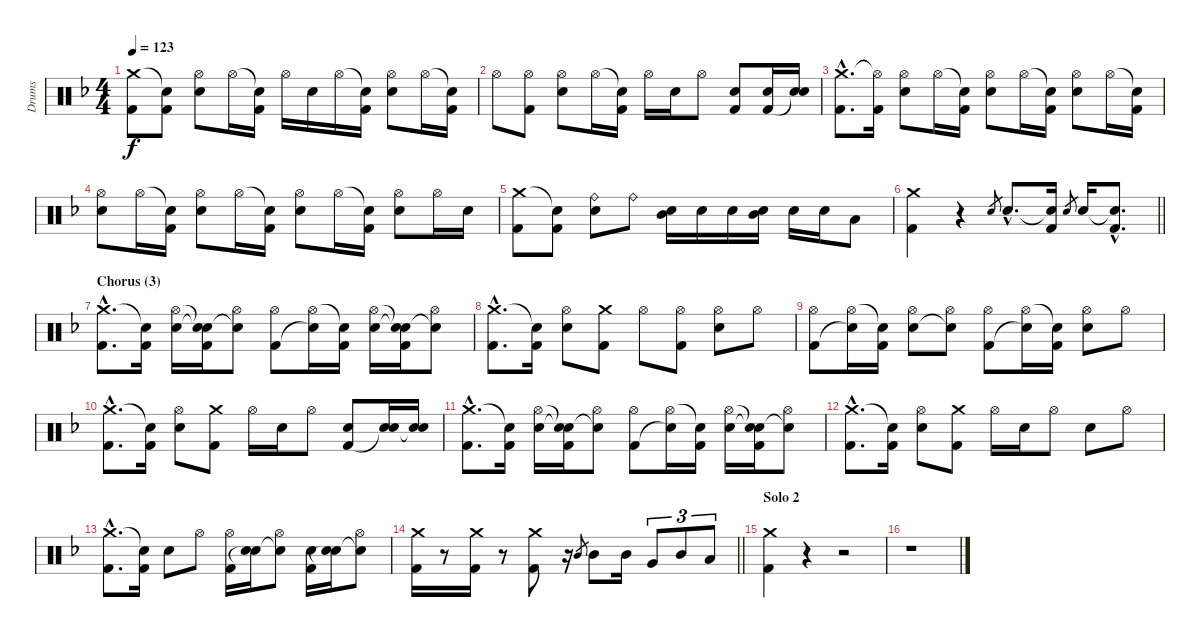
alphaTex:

\track ("Drums" "Drums") {instrument percussion}
\staff {score}
\articulation defaults
\ts (4 4)
\tempo 123
\clef neutral
\ks dminor
("Crash medium (hit)" "Kick (hit) 2").8{dy f} ("Snare (hit)"{t} "Kick (hit) 2").8 ("Hi-Hat (open)" "Electric Snare (hit)").8 "Hi-Hat (open)".16 ("Snare (hit)"{t} "Kick (hit) 2").16 "Hi-Hat (open)".16 "Electric Snare (hit)".16 "Hi-Hat (open)".16 ("Snare (hit)"{t} "Kick (hit) 2").16 ("Hi-Hat (open)" "Electric Snare (hit)").8 "Hi-Hat (open)".16 ("Snare (hit)"{t} "Kick (hit) 2").16 |
"Hi-Hat (open)".8 ("Hi-Hat (open)" "Kick (hit) 2").8 ("Hi-Hat (open)" "Electric Snare (hit)").8 "Hi-Hat (open)".16 ("Snare (hit)"{t} "Kick (hit) 2").16 "Hi-Hat (open)".16 "Electric Snare (hit)".16 "Hi-Hat (open)".8 ("Electric Snare (hit)" "Kick (hit) 2").8 ("Electric Snare (hit)" "Kick (hit) 2").16 ("Electric Snare (hit)" "Snare (hit)"{t}).16 |
("Crash medium (hit)"{hac} "Kick (hit) 2"{hac}).8{d} ("Hi-Hat (open)"{t} "Kick (hit) 2").16 ("Hi-Hat (open)" "Electric Snare (hit)").8 "Hi-Hat (open)".16 ("Snare (hit)"{t} "Kick (hit) 2").16 ("Hi-Hat (open)" "Electric Snare (hit)").8 "Hi-Hat (open)".16 ("Snare (hit)"{t} "Kick (hit) 2").16 ("Hi-Hat (open)" "Electric Snare (hit)").8 "Hi-Hat (open)".16 ("Snare (hit)"{t} "Kick (hit) 2").16 |
("Hi-Hat (open)" "Electric Snare (hit)").8 "Hi-Hat (open)".16 ("Snare (hit)"{t} "Kick (hit) 2").16 ("Hi-Hat (open)" "Electric Snare (hit)").8 "Hi-Hat (open)".16 ("Snare (hit)"{t} "Kick (hit) 2").16 ("Hi-Hat (open)" "Electric Snare (hit)").8 "Hi-Hat (open)".16 ("Snare (hit)"{t} "Kick (hit) 2").16 ("Hi-Hat (open)" "Electric Snare (hit)").8 "Hi-Hat (open)".16 "Electric Snare (hit)".16 |
("Crash medium (hit)" "Kick (hit) 2").8 ("Snare (hit)"{t} "Kick (hit) 2").8 ("Ride (bell)" "Electric Snare (hit)").8 "Ride (bell)".8 ("Electric Snare (hit)" "Mid Tom (hit)").16 "Electric Snare (hit)".16 "Electric Snare (hit)".16 ("Electric Snare (hit)" "Mid Tom (hit)").16 "Electric Snare (hit)".16 "Electric Snare (hit)".16 "Low Floor Tom (hit)".8 |
\barLineRight lightlight
("Crash medium (hit)" "Kick (hit) 2").4 r.4 "Electric Snare (hit)".8{gr} "Electric Snare (hit)"{hac}.8{d} ("Snare (hit)"{t} "Kick (hit) 2").16 "Electric Snare (hit)".8{gr} "Electric Snare (hit)".16 ("Snare (hit)"{hac t} "Kick (hit) 2"{hac}).8{d} |
\section ("" "Chorus (3)")
("Crash medium (hit)"{hac} "Kick (hit) 2"{hac}).8{d} ("Snare (hit)"{t} "Kick (hit) 2").16 ("Hi-Hat (open)" "Electric Snare (hit)").16 ("Snare (hit)"{t} "Snare (hit)"{t} "Kick (hit) 2").16 ("Hi-Hat (open)" "Snare (hit)"{t}).8 ("Hi-Hat (open)" "Kick (hit) 2").8 ("Hi-Hat (open)" "Snare (hit)"{t}).16 ("Snare (hit)"{t} "Kick (hit) 2").16 ("Hi-Hat (open)" "Electric Snare (hit)").16 ("Snare (hit)"{t} "Snare (hit)"{t} "Kick (hit) 2").16 ("Hi-Hat (open)" "Snare (hit)"{t}).8 |
("Crash medium (hit)"{hac} "Kick (hit) 2"{hac}).8{d} ("Snare (hit)"{t} "Kick (hit) 2").16 ("Hi-Hat (open)" "Electric Snare (hit)").8 ("Crash medium (hit)" "Kick (hit) 2").8 "Hi-Hat (open)".8 ("Hi-Hat (open)" "Kick (hit) 2").8 ("Hi-Hat (open)" "Electric Snare (hit)").8 "Hi-Hat (open)".8 |
("Hi-Hat (open)" "Kick (hit) 2").8 ("Hi-Hat (open)" "Snare (hit)"{t}).16 ("Snare (hit)"{t} "Kick (hit) 2").16 ("Hi-Hat (open)" "Electric Snare (hit)").8 ("Hi-Hat (open)" "Snare (hit)"{t}).8 ("Hi-Hat (open)" "Kick (hit) 2").8 ("Hi-Hat (open)" "Snare (hit)"{t}).16 ("Snare (hit)"{t} "Kick (hit) 2").16 ("Hi-Hat (open)" "Electric Snare (hit)").8 "Hi-Hat (open)".8 |
("Crash medium (hit)"{hac} "Kick (hit) 2"{hac}).8{d} ("Snare (hit)"{t} "Kick (hit) 2").16 ("Hi-Hat (open)" "Electric Snare (hit)").8 ("Crash medium (hit)" "Kick (hit) 2").8 "Hi-Hat (open)".16 "Electric Snare (hit)".16 "Hi-Hat (open)".8 ("Electric Snare (hit)" "Kick (hit) 2").8 ("Electric Snare (hit)" "Snare (hit)"{t}).16 ("Electric Snare (hit)" "Snare (hit)"{t}).16 |
("Crash medium (hit)"{hac} "Kick (hit) 2"{hac}).8{d} ("Snare (hit)"{t} "Kick (hit) 2").16 ("Hi-Hat (open)" "Electric Snare (hit)").16 ("Snare (hit)"{t} "Snare (hit)"{t} "Kick (hit) 2").16 ("Hi-Hat (open)" "Snare (hit)"{t}).8 ("Hi-Hat (open)" "Kick (hit) 2").8 ("Hi-Hat (open)" "Snare (hit)"{t}).16 ("Snare (hit)"{t} "Kick (hit) 2").16 ("Hi-Hat (open)" "Electric Snare (hit)").16 ("Snare (hit)"{t} "Snare (hit)"{t} "Kick (hit) 2").16 ("Hi-Hat (open)" "Snare (hit)"{t}).8 |
("Crash medium (hit)"{hac} "Kick (hit) 2"{hac}).8{d} ("Snare (hit)"{t} "Kick (hit) 2").16 ("Hi-Hat (open)" "Electric Snare (hit)").8 ("Crash medium (hit)" "Kick (hit) 2").8 "Hi-Hat (open)".16 "Electric Snare (hit)".16 "Hi-Hat (open)".8 "Electric Snare (hit)".8 "Hi-Hat (open)".8 |
("Crash medium (hit)"{hac} "Kick (hit) 2"{hac}).8{d} ("Snare (hit)"{t} "Kick (hit) 2").16 "Electric Snare (hit)".8 "Hi-Hat (open)".8 ("Hi-Hat (open)" "Kick (hit) 2").16 ("Electric Snare (hit)" "Snare (hit)"{t}).16 ("Hi-Hat (open)" "Snare (hit)"{t}).8 ("Electric Snare (hit)" "Kick (hit) 2").16 ("Electric Snare (hit)" "Snare (hit)"{t}).16 ("Hi-Hat (open)" "Snare (hit)"{t}).8 |
\barLineRight lightlight
("Crash medium (hit)" "Kick (hit) 2").16 r.8 ("Crash medium (hit)" "Kick (hit) 2").16 r.8 ("Crash medium (hit)" "Kick (hit) 2").8 r.16 "Mid Tom (hit)".8{gr} "Mid Tom (hit)".8 "Mid Tom (hit)".16 "Very Low Tom (hit)".8{tu (3 2)} "Mid Tom (hit)".8{tu (3 2)} "Low Floor Tom (hit)".8{tu (3 2)} |
\section ("" "Solo 2")
("Crash medium (hit)" "Kick (hit) 2").4 r.4 r.2 |
r.1
